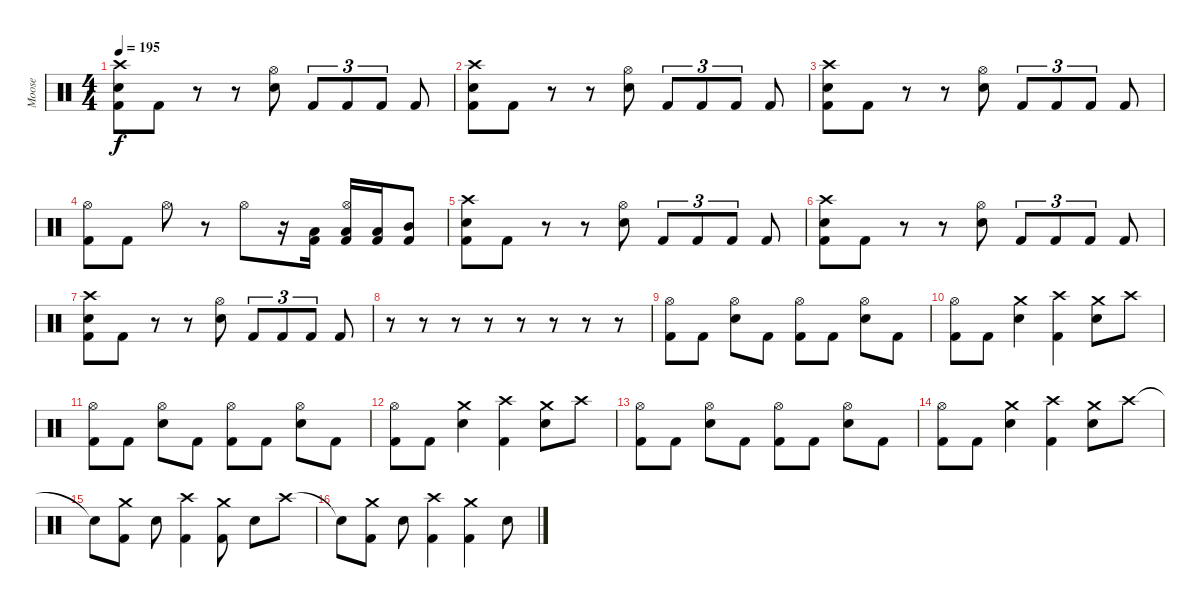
\track ("Moose" "Moose") {instrument percussion}
\staff {score}
\articulation defaults
\ts (4 4)
\tempo 195
\clef neutral
\ks c
("Crash high (hit)" "Snare (hit) 2" "Kick (hit) 2").8{dy f} "Kick (hit) 2".8 r.8 r.8 ("Hi-Hat (open)" "Snare (hit) 2").8 "Kick (hit) 2".8{tu (3 2)} "Kick (hit) 2".8{tu (3 2)} "Kick (hit) 2".8{tu (3 2)} "Kick (hit) 2".8 |
("Crash high (hit)" "Snare (hit) 2" "Kick (hit) 2").8 "Kick (hit) 2".8 r.8 r.8 ("Hi-Hat (open)" "Snare (hit) 2").8 "Kick (hit) 2".8{tu (3 2)} "Kick (hit) 2".8{tu (3 2)} "Kick (hit) 2".8{tu (3 2)} "Kick (hit) 2".8 |
("Crash high (hit)" "Snare (hit) 2" "Kick (hit) 2").8 "Kick (hit) 2".8 r.8 r.8 ("Hi-Hat (open)" "Snare (hit) 2").8 "Kick (hit) 2".8{tu (3 2)} "Kick (hit) 2".8{tu (3 2)} "Kick (hit) 2".8{tu (3 2)} "Kick (hit) 2".8 |
("Hi-Hat (open)" "Kick (hit) 2").8 "Kick (hit) 2".8 "Hi-Hat (open)".8 r.8 "Hi-Hat (open)".8 r.16 ("Low Tom (hit)" "Kick (hit) 2").16 ("Hi-Hat (open)" "Low Tom (hit)" "Kick (hit) 2").16 ("Low Tom (hit)" "Kick (hit) 2").16 ("Mid Tom (hit)" "Kick (hit) 2").8 |
("Crash high (hit)" "Snare (hit) 2" "Kick (hit) 2").8 "Kick (hit) 2".8 r.8 r.8 ("Hi-Hat (open)" "Snare (hit) 2").8 "Kick (hit) 2".8{tu (3 2)} "Kick (hit) 2".8{tu (3 2)} "Kick (hit) 2".8{tu (3 2)} "Kick (hit) 2".8 |
("Crash high (hit)" "Snare (hit) 2" "Kick (hit) 2").8 "Kick (hit) 2".8 r.8 r.8 ("Hi-Hat (open)" "Snare (hit) 2").8 "Kick (hit) 2".8{tu (3 2)} "Kick (hit) 2".8{tu (3 2)} "Kick (hit) 2".8{tu (3 2)} "Kick (hit) 2".8 |
("Crash high (hit)" "Snare (hit) 2" "Kick (hit) 2").8 "Kick (hit) 2".8 r.8 r.8 ("Hi-Hat (open)" "Snare (hit) 2").8 "Kick (hit) 2".8{tu (3 2)} "Kick (hit) 2".8{tu (3 2)} "Kick (hit) 2".8{tu (3 2)} "Kick (hit) 2".8 |
r.8 r.8 r.8 r.8 r.8 r.8 r.8 r.8 |
("Hi-Hat (open)" "Kick (hit) 2").8 "Kick (hit) 2".8 ("Hi-Hat (open)" "Snare (hit) 2").8 "Kick (hit) 2".8 ("Hi-Hat (open)" "Kick (hit) 2").8 "Kick (hit) 2".8 ("Hi-Hat (open)" "Snare (hit) 2").8 "Kick (hit) 2".8 |
("Hi-Hat (open)" "Kick (hit) 2").8 "Kick (hit) 2".8 ("Crash medium (hit)" "Snare (hit) 2").4 ("Crash high (hit)" "Kick (hit) 2").4 ("Crash medium (hit)" "Snare (hit) 2").8 "Crash high (hit)".8 |
("Hi-Hat (open)" "Kick (hit) 2").8 "Kick (hit) 2".8 ("Hi-Hat (open)" "Snare (hit) 2").8 "Kick (hit) 2".8 ("Hi-Hat (open)" "Kick (hit) 2").8 "Kick (hit) 2".8 ("Hi-Hat (open)" "Snare (hit) 2").8 "Kick (hit) 2".8 |
("Hi-Hat (open)" "Kick (hit) 2").8 "Kick (hit) 2".8 ("Crash medium (hit)" "Snare (hit) 2").4 ("Crash high (hit)" "Kick (hit) 2").4 ("Crash medium (hit)" "Snare (hit) 2").8 "Crash high (hit)".8 |
("Hi-Hat (open)" "Kick (hit) 2").8 "Kick (hit) 2".8 ("Hi-Hat (open)" "Snare (hit) 2").8 "Kick (hit) 2".8 ("Hi-Hat (open)" "Kick (hit) 2").8 "Kick (hit) 2".8 ("Hi-Hat (open)" "Snare (hit) 2").8 "Kick (hit) 2".8 |
("Hi-Hat (open)" "Kick (hit) 2").8 "Kick (hit) 2".8 ("Crash medium (hit)" "Snare (hit) 2").4 ("Crash high (hit)" "Kick (hit) 2").4 ("Crash medium (hit)" "Snare (hit) 2").8 "Crash high (hit)".8 |
"Snare (hit)"{t}.8 ("Crash medium (hit)" "Kick (hit) 2").8 "Snare (hit) 2".8 ("Crash high (hit)" "Kick (hit) 2").4 ("Crash medium (hit)" "Kick (hit) 2").8 "Snare (hit) 2".8 "Crash high (hit)".8 |
"Snare (hit)"{t}.8 ("Crash medium (hit)" "Kick (hit) 2").8 "Snare (hit) 2".8 ("Crash high (hit)" "Kick (hit) 2").4 ("Crash medium (hit)" "Kick (hit) 2").4 "Snare (hit) 2".8
